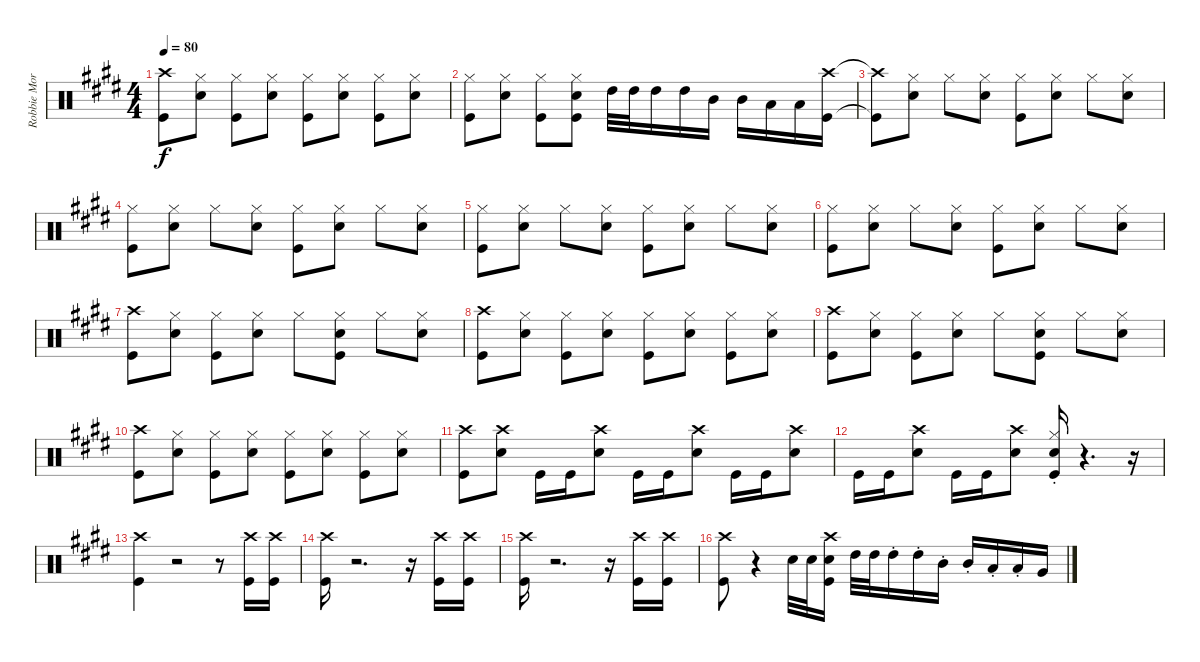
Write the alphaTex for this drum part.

\track ("Robbie Morris Drums" "Robbie Mor") {instrument percussion}
\staff {score}
\articulation defaults
\ts (4 4)
\tempo 80
\clef neutral
\ks e
("Crash high (hit)" "Kick (hit)").8{dy f} ("Hi-Hat (closed)" "Snare (hit) 2").8 ("Hi-Hat (closed)" "Kick (hit)").8 ("Hi-Hat (closed)" "Snare (hit) 2").8 ("Hi-Hat (closed)" "Kick (hit)").8 ("Hi-Hat (closed)" "Snare (hit) 2").8 ("Hi-Hat (closed)" "Kick (hit)").8 ("Hi-Hat (closed)" "Snare (hit) 2").8 |
("Hi-Hat (closed)" "Kick (hit)").8 ("Hi-Hat (closed)" "Snare (hit) 2").8 ("Hi-Hat (closed)" "Kick (hit)").8 ("Hi-Hat (closed)" "Snare (hit) 2" "Kick (hit)").8 "High Tom (hit)".32 "High Tom (hit)".32 "High Tom (hit)".16 "High Tom (hit)".16 "Mid Tom (hit)".16 "Mid Tom (hit)".16 "Low Tom (hit)".16 "Low Tom (hit)".16 ("Crash high (hit)" "Kick (hit)").16 |
("Crash high (hit)"{t} "Kick (hit)"{t}).8 ("Hi-Hat (closed)" "Snare (hit) 2").8 "Hi-Hat (closed)".8 ("Hi-Hat (closed)" "Snare (hit) 2").8 ("Hi-Hat (closed)" "Kick (hit)").8 ("Hi-Hat (closed)" "Snare (hit) 2").8 "Hi-Hat (closed)".8 ("Hi-Hat (closed)" "Snare (hit) 2").8 |
("Hi-Hat (closed)" "Kick (hit)").8 ("Hi-Hat (closed)" "Snare (hit) 2").8 "Hi-Hat (closed)".8 ("Hi-Hat (closed)" "Snare (hit) 2").8 ("Hi-Hat (closed)" "Kick (hit)").8 ("Hi-Hat (closed)" "Snare (hit) 2").8 "Hi-Hat (closed)".8 ("Hi-Hat (closed)" "Snare (hit) 2").8 |
("Hi-Hat (closed)" "Kick (hit)").8 ("Hi-Hat (closed)" "Snare (hit) 2").8 "Hi-Hat (closed)".8 ("Hi-Hat (closed)" "Snare (hit) 2").8 ("Hi-Hat (closed)" "Kick (hit)").8 ("Hi-Hat (closed)" "Snare (hit) 2").8 "Hi-Hat (closed)".8 ("Hi-Hat (closed)" "Snare (hit) 2").8 |
("Hi-Hat (closed)" "Kick (hit)").8 ("Hi-Hat (closed)" "Snare (hit) 2").8 "Hi-Hat (closed)".8 ("Hi-Hat (closed)" "Snare (hit) 2").8 ("Hi-Hat (closed)" "Kick (hit)").8 ("Hi-Hat (closed)" "Snare (hit) 2").8 "Hi-Hat (closed)".8 ("Hi-Hat (closed)" "Snare (hit) 2").8 |
("Crash high (hit)" "Kick (hit)").8 ("Hi-Hat (closed)" "Snare (hit) 2").8 ("Hi-Hat (closed)" "Kick (hit)").8 ("Hi-Hat (closed)" "Snare (hit) 2").8 "Hi-Hat (closed)".8 ("Hi-Hat (closed)" "Snare (hit) 2" "Kick (hit)").8 "Hi-Hat (closed)".8 ("Hi-Hat (closed)" "Snare (hit) 2").8 |
("Crash high (hit)" "Kick (hit)").8 ("Hi-Hat (closed)" "Snare (hit) 2").8 ("Hi-Hat (closed)" "Kick (hit)").8 ("Hi-Hat (closed)" "Snare (hit) 2").8 ("Hi-Hat (closed)" "Kick (hit)").8 ("Hi-Hat (closed)" "Snare (hit) 2").8 ("Hi-Hat (closed)" "Kick (hit)").8 ("Hi-Hat (closed)" "Snare (hit) 2").8 |
("Crash high (hit)" "Kick (hit)").8 ("Hi-Hat (closed)" "Snare (hit) 2").8 ("Hi-Hat (closed)" "Kick (hit)").8 ("Hi-Hat (closed)" "Snare (hit) 2").8 "Hi-Hat (closed)".8 ("Hi-Hat (closed)" "Snare (hit) 2" "Kick (hit)").8 "Hi-Hat (closed)".8 ("Hi-Hat (closed)" "Snare (hit) 2").8 |
("Crash high (hit)" "Kick (hit)").8 ("Hi-Hat (closed)" "Snare (hit) 2").8 ("Hi-Hat (closed)" "Kick (hit)").8 ("Hi-Hat (closed)" "Snare (hit) 2").8 ("Hi-Hat (closed)" "Kick (hit)").8 ("Hi-Hat (closed)" "Snare (hit) 2").8 ("Hi-Hat (closed)" "Kick (hit)").8 ("Hi-Hat (closed)" "Snare (hit) 2").8 |
("Crash high (hit)" "Kick (hit)").8 ("Crash high (hit)" "Snare (hit) 2").8 "Kick (hit)".16 "Kick (hit)".16 ("Crash high (hit)" "Snare (hit) 2").8 "Kick (hit)".16 "Kick (hit)".16 ("Crash high (hit)" "Snare (hit) 2").8 "Kick (hit)".16 "Kick (hit)".16 ("Crash high (hit)" "Snare (hit) 2").8 |
"Kick (hit)".16 "Kick (hit)".16 ("Crash high (hit)" "Snare (hit) 2").8 "Kick (hit)".16 "Kick (hit)".16 ("Crash high (hit)" "Snare (hit) 2").8 ("Hi-Hat (closed)"{st} "Snare (hit) 2" "Kick (hit)").16 r.4{d} r.16 |
("Crash high (hit)" "Kick (hit)").4 r.2 r.8 ("Crash high (hit)" "Kick (hit)").16 ("Crash high (hit)" "Kick (hit)").16 |
("Crash high (hit)" "Kick (hit)").16 r.2{d} r.16 ("Crash high (hit)" "Kick (hit)").16 ("Crash high (hit)" "Kick (hit)").16 |
("Crash high (hit)" "Kick (hit)").16 r.2{d} r.16 ("Crash high (hit)" "Kick (hit)").16 ("Crash high (hit)" "Kick (hit)").16 |
("Crash high (hit)" "Kick (hit)").8 r.4 "Snare (hit) 2".32 "Snare (hit) 2".32 ("Crash high (hit)" "Snare (hit) 2" "Kick (hit)").16 "High Tom (hit)".32 "High Tom (hit)".32 "High Tom (hit)"{st}.16 "High Tom (hit)"{st}.16 "Mid Tom (hit)"{st}.16 "Mid Tom (hit)"{st}.16 "Low Tom (hit)"{st}.16 "Low Tom (hit)"{st}.16 "Very Low Tom (hit)".16
